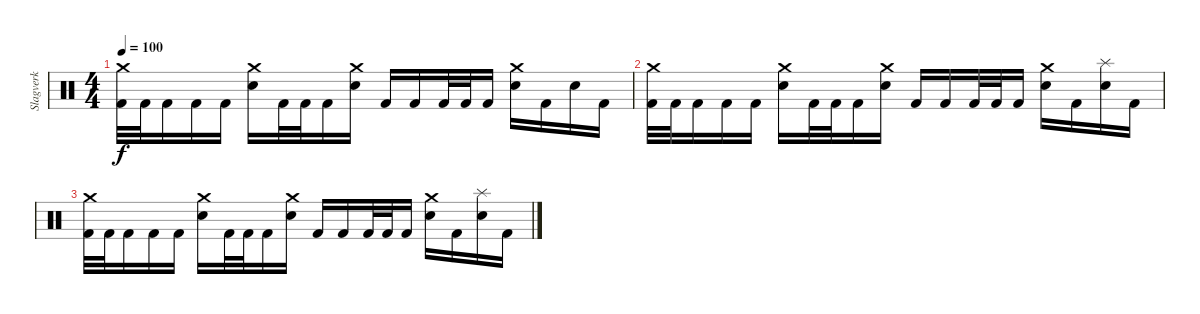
\track ("Slagverk" "Slagverk") {instrument percussion}
\staff {score}
\articulation defaults
\ts (4 4)
\tempo 100
\clef neutral
\ks c
("Crash medium (hit)" "Kick (hit) 2").32{dy f} "Kick (hit) 2".32 "Kick (hit) 2".16 "Kick (hit) 2".16 "Kick (hit) 2".16 ("Crash medium (hit)" "Snare (hit) 2").16 "Kick (hit) 2".32 "Kick (hit) 2".32 "Kick (hit) 2".16 ("Crash medium (hit)" "Snare (hit) 2").16 "Kick (hit) 2".16 "Kick (hit) 2".16 "Kick (hit) 2".32 "Kick (hit) 2".32 "Kick (hit) 2".16 ("Crash medium (hit)" "Snare (hit) 2").16 "Kick (hit) 2".16 "Snare (hit) 2".16 "Kick (hit) 2".16 |
("Crash medium (hit)" "Kick (hit) 2").32 "Kick (hit) 2".32 "Kick (hit) 2".16 "Kick (hit) 2".16 "Kick (hit) 2".16 ("Crash medium (hit)" "Snare (hit) 2").16 "Kick (hit) 2".32 "Kick (hit) 2".32 "Kick (hit) 2".16 ("Crash medium (hit)" "Snare (hit) 2").16 "Kick (hit) 2".16 "Kick (hit) 2".16 "Kick (hit) 2".32 "Kick (hit) 2".32 "Kick (hit) 2".16 ("Crash medium (hit)" "Snare (hit) 2").16 "Kick (hit) 2".16 ("Splash (hit)" "Snare (hit) 2").16 "Kick (hit) 2".16 |
("Crash medium (hit)" "Kick (hit) 2").32 "Kick (hit) 2".32 "Kick (hit) 2".16 "Kick (hit) 2".16 "Kick (hit) 2".16 ("Crash medium (hit)" "Snare (hit) 2").16 "Kick (hit) 2".32 "Kick (hit) 2".32 "Kick (hit) 2".16 ("Crash medium (hit)" "Snare (hit) 2").16 "Kick (hit) 2".16 "Kick (hit) 2".16 "Kick (hit) 2".32 "Kick (hit) 2".32 "Kick (hit) 2".16 ("Crash medium (hit)" "Snare (hit) 2").16 "Kick (hit) 2".16 ("Splash (hit)" "Snare (hit) 2").16 "Kick (hit) 2".16
